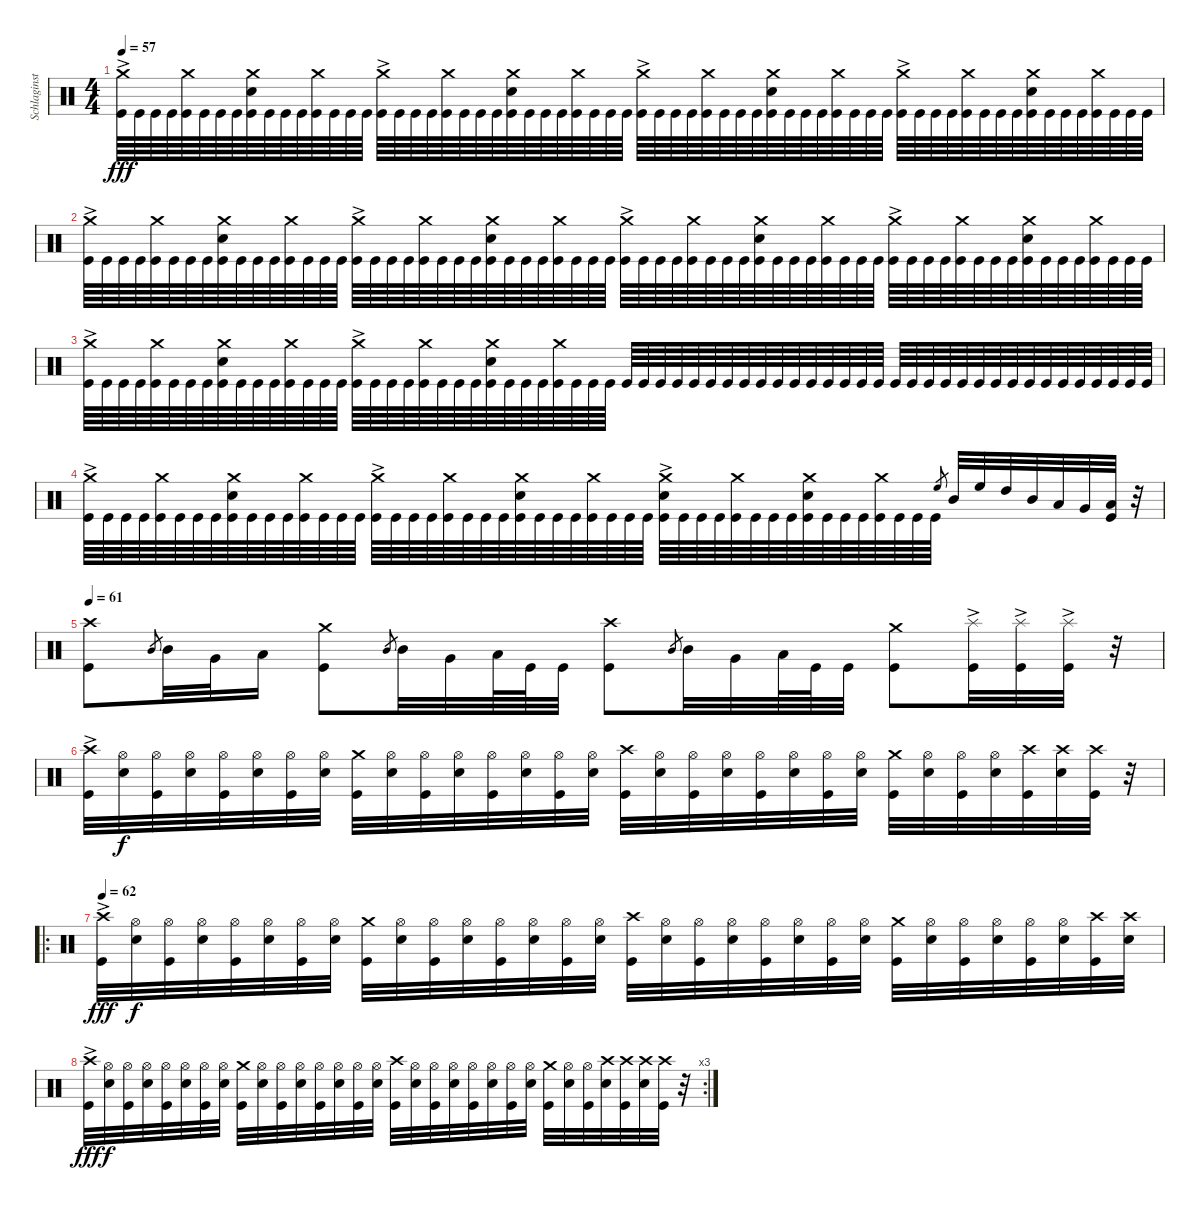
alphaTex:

\track ("Schlaginstrumente - Auswahl" "Schlaginst") {instrument percussion}
\staff {score}
\articulation defaults
\ts (4 4)
\tempo 57
\clef neutral
\ks c
("Crash medium (hit)"{ac} "Kick (hit)").64{dy fff} "Kick (hit)".64 "Kick (hit)".64 "Kick (hit)".64 ("Crash medium (hit)" "Kick (hit)").64 "Kick (hit)".64 "Kick (hit)".64 "Kick (hit)".64 ("Crash medium (hit)" "Snare (hit) 2" "Kick (hit)").64 "Kick (hit)".64 "Kick (hit)".64 "Kick (hit)".64 ("Crash medium (hit)" "Kick (hit)").64 "Kick (hit)".64 "Kick (hit)".64 "Kick (hit)".64 ("Crash medium (hit)"{ac} "Kick (hit)").64 "Kick (hit)".64 "Kick (hit)".64 "Kick (hit)".64 ("Crash medium (hit)" "Kick (hit)").64 "Kick (hit)".64 "Kick (hit)".64 "Kick (hit)".64 ("Crash medium (hit)" "Snare (hit) 2" "Kick (hit)").64 "Kick (hit)".64 "Kick (hit)".64 "Kick (hit)".64 ("Crash medium (hit)" "Kick (hit)").64 "Kick (hit)".64 "Kick (hit)".64 "Kick (hit)".64 ("Crash medium (hit)"{ac} "Kick (hit)").64 "Kick (hit)".64 "Kick (hit)".64 "Kick (hit)".64 ("Crash medium (hit)" "Kick (hit)").64 "Kick (hit)".64 "Kick (hit)".64 "Kick (hit)".64 ("Crash medium (hit)" "Snare (hit) 2" "Kick (hit)").64 "Kick (hit)".64 "Kick (hit)".64 "Kick (hit)".64 ("Crash medium (hit)" "Kick (hit)").64 "Kick (hit)".64 "Kick (hit)".64 "Kick (hit)".64 ("Crash medium (hit)"{ac} "Kick (hit)").64 "Kick (hit)".64 "Kick (hit)".64 "Kick (hit)".64 ("Crash medium (hit)" "Kick (hit)").64 "Kick (hit)".64 "Kick (hit)".64 "Kick (hit)".64 ("Crash medium (hit)" "Snare (hit) 2" "Kick (hit)").64 "Kick (hit)".64 "Kick (hit)".64 "Kick (hit)".64 ("Crash medium (hit)" "Kick (hit)").64 "Kick (hit)".64 "Kick (hit)".64 "Kick (hit)".64 |
("Crash medium (hit)"{ac} "Kick (hit)").64 "Kick (hit)".64 "Kick (hit)".64 "Kick (hit)".64 ("Crash medium (hit)" "Kick (hit)").64 "Kick (hit)".64 "Kick (hit)".64 "Kick (hit)".64 ("Crash medium (hit)" "Snare (hit) 2" "Kick (hit)").64 "Kick (hit)".64 "Kick (hit)".64 "Kick (hit)".64 ("Crash medium (hit)" "Kick (hit)").64 "Kick (hit)".64 "Kick (hit)".64 "Kick (hit)".64 ("Crash medium (hit)"{ac} "Kick (hit)").64 "Kick (hit)".64 "Kick (hit)".64 "Kick (hit)".64 ("Crash medium (hit)" "Kick (hit)").64 "Kick (hit)".64 "Kick (hit)".64 "Kick (hit)".64 ("Crash medium (hit)" "Snare (hit) 2" "Kick (hit)").64 "Kick (hit)".64 "Kick (hit)".64 "Kick (hit)".64 ("Crash medium (hit)" "Kick (hit)").64 "Kick (hit)".64 "Kick (hit)".64 "Kick (hit)".64 ("Crash medium (hit)"{ac} "Kick (hit)").64 "Kick (hit)".64 "Kick (hit)".64 "Kick (hit)".64 ("Crash medium (hit)" "Kick (hit)").64 "Kick (hit)".64 "Kick (hit)".64 "Kick (hit)".64 ("Crash medium (hit)" "Snare (hit) 2" "Kick (hit)").64 "Kick (hit)".64 "Kick (hit)".64 "Kick (hit)".64 ("Crash medium (hit)" "Kick (hit)").64 "Kick (hit)".64 "Kick (hit)".64 "Kick (hit)".64 ("Crash medium (hit)"{ac} "Kick (hit)").64 "Kick (hit)".64 "Kick (hit)".64 "Kick (hit)".64 ("Crash medium (hit)" "Kick (hit)").64 "Kick (hit)".64 "Kick (hit)".64 "Kick (hit)".64 ("Crash medium (hit)" "Snare (hit) 2" "Kick (hit)").64 "Kick (hit)".64 "Kick (hit)".64 "Kick (hit)".64 ("Crash medium (hit)" "Kick (hit)").64 "Kick (hit)".64 "Kick (hit)".64 "Kick (hit)".64 |
("Crash medium (hit)"{ac} "Kick (hit)").64 "Kick (hit)".64 "Kick (hit)".64 "Kick (hit)".64 ("Crash medium (hit)" "Kick (hit)").64 "Kick (hit)".64 "Kick (hit)".64 "Kick (hit)".64 ("Crash medium (hit)" "Snare (hit) 2" "Kick (hit)").64 "Kick (hit)".64 "Kick (hit)".64 "Kick (hit)".64 ("Crash medium (hit)" "Kick (hit)").64 "Kick (hit)".64 "Kick (hit)".64 "Kick (hit)".64 ("Crash medium (hit)"{ac} "Kick (hit)").64 "Kick (hit)".64 "Kick (hit)".64 "Kick (hit)".64 ("Crash medium (hit)" "Kick (hit)").64 "Kick (hit)".64 "Kick (hit)".64 "Kick (hit)".64 ("Crash medium (hit)" "Snare (hit) 2" "Kick (hit)").64 "Kick (hit)".64 "Kick (hit)".64 "Kick (hit)".64 ("Crash medium (hit)" "Kick (hit)").64 "Kick (hit)".64 "Kick (hit)".64 "Kick (hit)".64 "Kick (hit)".64 "Kick (hit)".64 "Kick (hit)".64 "Kick (hit)".64 "Kick (hit)".64 "Kick (hit)".64 "Kick (hit)".64 "Kick (hit)".64 "Kick (hit)".64 "Kick (hit)".64 "Kick (hit)".64 "Kick (hit)".64 "Kick (hit)".64 "Kick (hit)".64 "Kick (hit)".64 "Kick (hit)".64 "Kick (hit)".64 "Kick (hit)".64 "Kick (hit)".64 "Kick (hit)".64 "Kick (hit)".64 "Kick (hit)".64 "Kick (hit)".64 "Kick (hit)".64 "Kick (hit)".64 "Kick (hit)".64 "Kick (hit)".64 "Kick (hit)".64 "Kick (hit)".64 "Kick (hit)".64 "Kick (hit)".64 "Kick (hit)".64 |
("Crash medium (hit)"{ac} "Kick (hit)").64 "Kick (hit)".64 "Kick (hit)".64 "Kick (hit)".64 ("Crash medium (hit)" "Kick (hit)").64 "Kick (hit)".64 "Kick (hit)".64 "Kick (hit)".64 ("Crash medium (hit)" "Snare (hit) 2" "Kick (hit)").64 "Kick (hit)".64 "Kick (hit)".64 "Kick (hit)".64 ("Crash medium (hit)" "Kick (hit)").64 "Kick (hit)".64 "Kick (hit)".64 "Kick (hit)".64 ("Crash medium (hit)"{ac} "Kick (hit)").64 "Kick (hit)".64 "Kick (hit)".64 "Kick (hit)".64 ("Crash medium (hit)" "Kick (hit)").64 "Kick (hit)".64 "Kick (hit)".64 "Kick (hit)".64 ("Crash medium (hit)" "Snare (hit) 2" "Kick (hit)").64 "Kick (hit)".64 "Kick (hit)".64 "Kick (hit)".64 ("Crash medium (hit)" "Kick (hit)").64 "Kick (hit)".64 "Kick (hit)".64 "Kick (hit)".64 ("Crash medium (hit)"{ac} "Snare (hit) 2" "Kick (hit)").64 "Kick (hit)".64 "Kick (hit)".64 "Kick (hit)".64 ("Crash medium (hit)" "Kick (hit)").64 "Kick (hit)".64 "Kick (hit)".64 "Kick (hit)".64 ("Crash medium (hit)" "Snare (hit) 2" "Kick (hit)").64 "Kick (hit)".64 "Kick (hit)".64 "Kick (hit)".64 ("Crash medium (hit)" "Kick (hit)").64 "Kick (hit)".64 "Kick (hit)".64 "Kick (hit)".64 "High Floor Tom (hit)".8{gr} "Mid Tom (hit)".32 "High Floor Tom (hit)".32 "High Tom (hit)".32 "Mid Tom (hit)".32 "Low Tom (hit)".32 "Very Low Tom (hit)".32 ("Kick (hit)" "Low Floor Tom (hit)").32 r.32 |
\tempo 61
("Crash high (hit)" "Kick (hit)").8 "Mid Tom (hit)".8{gr} "Mid Tom (hit)".32 "Very Low Tom (hit)".32 "Low Floor Tom (hit)".16 ("Crash medium (hit)" "Kick (hit)").8 "Mid Tom (hit)".8{gr} "Mid Tom (hit)".32 "Very Low Tom (hit)".32 "Low Floor Tom (hit)".64 "Kick (hit)".64 "Kick (hit)".32 ("Crash high (hit)" "Kick (hit)").8 "Mid Tom (hit)".8{gr} "Mid Tom (hit)".32 "Very Low Tom (hit)".32 "Low Floor Tom (hit)".64 "Kick (hit)".64 "Kick (hit)".32 ("Crash medium (hit)" "Kick (hit)").8 ("Splash (hit)"{ac} "Kick (hit)"{ac}).32 ("Splash (hit)"{ac} "Kick (hit)"{ac}).32 ("Splash (hit)"{ac} "Kick (hit)"{ac}).32 r.32 |
("Kick (hit)" "Crash high (hit)"{ac}).32 ("Hi-Hat (open)" "Snare (hit) 2").32{dy f} ("Hi-Hat (open)" "Kick (hit)").32 ("Hi-Hat (open)" "Snare (hit) 2").32 ("Hi-Hat (open)" "Kick (hit)").32 ("Hi-Hat (open)" "Snare (hit) 2").32 ("Hi-Hat (open)" "Kick (hit)").32 ("Hi-Hat (open)" "Snare (hit) 2").32 ("Crash medium (hit)" "Kick (hit)").32 ("Hi-Hat (open)" "Snare (hit) 2").32 ("Hi-Hat (open)" "Kick (hit)").32 ("Hi-Hat (open)" "Snare (hit) 2").32 ("Hi-Hat (open)" "Kick (hit)").32 ("Hi-Hat (open)" "Snare (hit) 2").32 ("Hi-Hat (open)" "Kick (hit)").32 ("Hi-Hat (open)" "Snare (hit) 2").32 ("Crash high (hit)" "Kick (hit)").32 ("Hi-Hat (open)" "Snare (hit) 2").32 ("Hi-Hat (open)" "Kick (hit)").32 ("Hi-Hat (open)" "Snare (hit) 2").32 ("Hi-Hat (open)" "Kick (hit)").32 ("Hi-Hat (open)" "Snare (hit) 2").32 ("Hi-Hat (open)" "Kick (hit)").32 ("Hi-Hat (open)" "Snare (hit) 2").32 ("Crash medium (hit)" "Kick (hit)").32 ("Hi-Hat (open)" "Snare (hit) 2").32 ("Hi-Hat (open)" "Kick (hit)").32 ("Hi-Hat (open)" "Snare (hit) 2").32 ("Crash high (hit)" "Kick (hit)").32 ("Crash high (hit)" "Snare (hit) 2").32 ("Crash high (hit)" "Kick (hit)").32 r.32 |
\ro
\tempo 62
("Kick (hit)" "Crash high (hit)"{ac}).32{dy fff} ("Hi-Hat (open)" "Snare (hit) 2").32{dy f} ("Hi-Hat (open)" "Kick (hit)").32 ("Hi-Hat (open)" "Snare (hit) 2").32 ("Hi-Hat (open)" "Kick (hit)").32 ("Hi-Hat (open)" "Snare (hit) 2").32 ("Hi-Hat (open)" "Kick (hit)").32 ("Hi-Hat (open)" "Snare (hit) 2").32 ("Crash medium (hit)" "Kick (hit)").32 ("Hi-Hat (open)" "Snare (hit) 2").32 ("Hi-Hat (open)" "Kick (hit)").32 ("Hi-Hat (open)" "Snare (hit) 2").32 ("Hi-Hat (open)" "Kick (hit)").32 ("Hi-Hat (open)" "Snare (hit) 2").32 ("Hi-Hat (open)" "Kick (hit)").32 ("Hi-Hat (open)" "Snare (hit) 2").32 ("Crash high (hit)" "Kick (hit)").32 ("Hi-Hat (open)" "Snare (hit) 2").32 ("Hi-Hat (open)" "Kick (hit)").32 ("Hi-Hat (open)" "Snare (hit) 2").32 ("Hi-Hat (open)" "Kick (hit)").32 ("Hi-Hat (open)" "Snare (hit) 2").32 ("Hi-Hat (open)" "Kick (hit)").32 ("Hi-Hat (open)" "Snare (hit) 2").32 ("Crash medium (hit)" "Kick (hit)").32 ("Hi-Hat (open)" "Snare (hit) 2").32 ("Hi-Hat (open)" "Kick (hit)").32 ("Hi-Hat (open)" "Snare (hit) 2").32 ("Hi-Hat (open)" "Kick (hit)").32 ("Hi-Hat (open)" "Snare (hit) 2").32 ("Crash high (hit)" "Kick (hit)").32 ("Crash high (hit)" "Snare (hit) 2").32 |
\rc 3
("Kick (hit)" "Crash high (hit)"{ac}).32{dy fff} ("Hi-Hat (open)" "Snare (hit) 2").32{dy f} ("Hi-Hat (open)" "Kick (hit)").32 ("Hi-Hat (open)" "Snare (hit) 2").32 ("Hi-Hat (open)" "Kick (hit)").32 ("Hi-Hat (open)" "Snare (hit) 2").32 ("Hi-Hat (open)" "Kick (hit)").32 ("Hi-Hat (open)" "Snare (hit) 2").32 ("Crash medium (hit)" "Kick (hit)").32 ("Hi-Hat (open)" "Snare (hit) 2").32 ("Hi-Hat (open)" "Kick (hit)").32 ("Hi-Hat (open)" "Snare (hit) 2").32 ("Hi-Hat (open)" "Kick (hit)").32 ("Hi-Hat (open)" "Snare (hit) 2").32 ("Hi-Hat (open)" "Kick (hit)").32 ("Hi-Hat (open)" "Snare (hit) 2").32 ("Crash high (hit)" "Kick (hit)").32 ("Hi-Hat (open)" "Snare (hit) 2").32 ("Hi-Hat (open)" "Kick (hit)").32 ("Hi-Hat (open)" "Snare (hit) 2").32 ("Hi-Hat (open)" "Kick (hit)").32 ("Hi-Hat (open)" "Snare (hit) 2").32 ("Hi-Hat (open)" "Kick (hit)").32 ("Hi-Hat (open)" "Snare (hit) 2").32 ("Crash medium (hit)" "Kick (hit)").32 ("Hi-Hat (open)" "Snare (hit) 2").32 ("Hi-Hat (open)" "Kick (hit)").32 ("Crash high (hit)" "Snare (hit) 2").32 ("Crash high (hit)" "Kick (hit)").32 ("Crash high (hit)" "Snare (hit) 2").32 ("Crash high (hit)" "Kick (hit)").32 r.32
